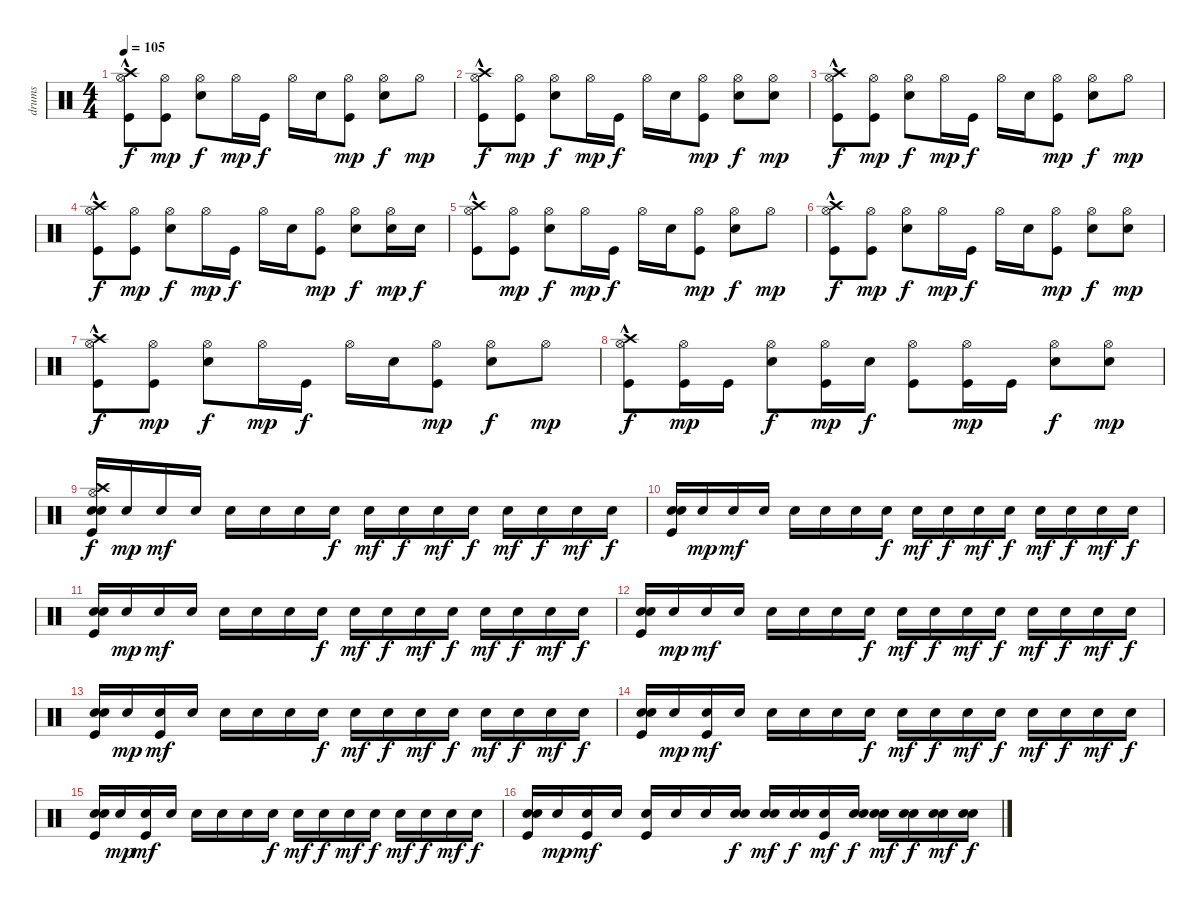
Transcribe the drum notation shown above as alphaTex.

\track ("drums" "drums") {instrument percussion}
\staff {score}
\articulation defaults
\ts (4 4)
\tempo 105
\clef neutral
\ks c
("Kick (hit)" "Crash high (hit)"{hac} "Hi-Hat (open)").8{dy f} ("Kick (hit)" "Hi-Hat (open)").8{dy mp} ("Snare (hit) 2" "Hi-Hat (open)").8{dy f} "Hi-Hat (open)".16{dy mp} "Kick (hit)".16{dy f} "Hi-Hat (open)".16 "Snare (hit) 2".16 ("Kick (hit)" "Hi-Hat (open)").8{dy mp} ("Snare (hit) 2" "Hi-Hat (open)").8{dy f} "Hi-Hat (open)".8{dy mp} |
("Hi-Hat (open)" "Crash high (hit)"{hac} "Kick (hit)").8{dy f} ("Kick (hit)" "Hi-Hat (open)").8{dy mp} ("Snare (hit) 2" "Hi-Hat (open)").8{dy f} "Hi-Hat (open)".16{dy mp} "Kick (hit)".16{dy f} "Hi-Hat (open)".16 "Snare (hit) 2".16 ("Kick (hit)" "Hi-Hat (open)").8{dy mp} ("Snare (hit) 2" "Hi-Hat (open)").8{dy f} ("Hi-Hat (open)" "Snare (hit) 2").8{dy mp} |
("Hi-Hat (open)" "Crash high (hit)"{hac} "Kick (hit)").8{dy f} ("Kick (hit)" "Hi-Hat (open)").8{dy mp} ("Snare (hit) 2" "Hi-Hat (open)").8{dy f} "Hi-Hat (open)".16{dy mp} "Kick (hit)".16{dy f} "Hi-Hat (open)".16 "Snare (hit) 2".16 ("Kick (hit)" "Hi-Hat (open)").8{dy mp} ("Snare (hit) 2" "Hi-Hat (open)").8{dy f} "Hi-Hat (open)".8{dy mp} |
("Hi-Hat (open)" "Crash high (hit)"{hac} "Kick (hit)").8{dy f} ("Kick (hit)" "Hi-Hat (open)").8{dy mp} ("Snare (hit) 2" "Hi-Hat (open)").8{dy f} "Hi-Hat (open)".16{dy mp} "Kick (hit)".16{dy f} "Hi-Hat (open)".16 "Snare (hit) 2".16 ("Kick (hit)" "Hi-Hat (open)").8{dy mp} ("Snare (hit) 2" "Hi-Hat (open)").8{dy f} ("Hi-Hat (open)" "Snare (hit) 2").16{dy mp} "Snare (hit) 2".16{dy f} |
("Hi-Hat (open)" "Crash high (hit)"{hac} "Kick (hit)").8 ("Kick (hit)" "Hi-Hat (open)").8{dy mp} ("Snare (hit) 2" "Hi-Hat (open)").8{dy f} "Hi-Hat (open)".16{dy mp} "Kick (hit)".16{dy f} "Hi-Hat (open)".16 "Snare (hit) 2".16 ("Kick (hit)" "Hi-Hat (open)").8{dy mp} ("Snare (hit) 2" "Hi-Hat (open)").8{dy f} "Hi-Hat (open)".8{dy mp} |
("Hi-Hat (open)" "Crash high (hit)"{hac} "Kick (hit)").8{dy f} ("Kick (hit)" "Hi-Hat (open)").8{dy mp} ("Snare (hit) 2" "Hi-Hat (open)").8{dy f} "Hi-Hat (open)".16{dy mp} "Kick (hit)".16{dy f} "Hi-Hat (open)".16 "Snare (hit) 2".16 ("Kick (hit)" "Hi-Hat (open)").8{dy mp} ("Snare (hit) 2" "Hi-Hat (open)").8{dy f} ("Hi-Hat (open)" "Snare (hit) 2").8{dy mp} |
("Hi-Hat (open)" "Crash high (hit)"{hac} "Kick (hit)").8{dy f} ("Kick (hit)" "Hi-Hat (open)").8{dy mp} ("Snare (hit) 2" "Hi-Hat (open)").8{dy f} "Hi-Hat (open)".16{dy mp} "Kick (hit)".16{dy f} "Hi-Hat (open)".16 "Snare (hit) 2".16 ("Kick (hit)" "Hi-Hat (open)").8{dy mp} ("Snare (hit) 2" "Hi-Hat (open)").8{dy f} "Hi-Hat (open)".8{dy mp} |
("Hi-Hat (open)" "Crash high (hit)"{hac} "Kick (hit)").8{dy f} ("Kick (hit)" "Hi-Hat (open)").16{dy mp} "Kick (hit)".16 ("Snare (hit) 2" "Hi-Hat (open)").8{dy f} ("Hi-Hat (open)" "Kick (hit)").16{dy mp} "Snare (hit) 2".16{dy f} ("Hi-Hat (open)" "Kick (hit)").8 ("Kick (hit)" "Hi-Hat (open)").16{dy mp} "Kick (hit)".16 ("Snare (hit) 2" "Hi-Hat (open)").8{dy f} ("Hi-Hat (open)" "Snare (hit) 2").8{dy mp} |
("Kick (hit)" "Snare (hit) 2" "Electric Snare (hit)" "Hi-Hat (open)" "Crash high (hit)").16{dy f} "Electric Snare (hit)".16{dy mp} "Electric Snare (hit)".16{dy mf} "Electric Snare (hit)".16 "Electric Snare (hit)".16 "Electric Snare (hit)".16 "Electric Snare (hit)".16 "Electric Snare (hit)".16{dy f} "Electric Snare (hit)".16{dy mf} "Electric Snare (hit)".16{dy f} "Electric Snare (hit)".16{dy mf} "Electric Snare (hit)".16{dy f} "Electric Snare (hit)".16{dy mf} "Electric Snare (hit)".16{dy f} "Electric Snare (hit)".16{dy mf} "Electric Snare (hit)".16{dy f} |
("Kick (hit)" "Snare (hit) 2" "Electric Snare (hit)").16 "Electric Snare (hit)".16{dy mp} "Electric Snare (hit)".16{dy mf} "Electric Snare (hit)".16 "Electric Snare (hit)".16 "Electric Snare (hit)".16 "Electric Snare (hit)".16 "Electric Snare (hit)".16{dy f} "Electric Snare (hit)".16{dy mf} "Electric Snare (hit)".16{dy f} "Electric Snare (hit)".16{dy mf} "Electric Snare (hit)".16{dy f} "Electric Snare (hit)".16{dy mf} "Electric Snare (hit)".16{dy f} "Electric Snare (hit)".16{dy mf} "Electric Snare (hit)".16{dy f} |
("Kick (hit)" "Snare (hit) 2" "Electric Snare (hit)").16 "Electric Snare (hit)".16{dy mp} "Electric Snare (hit)".16{dy mf} "Electric Snare (hit)".16 "Electric Snare (hit)".16 "Electric Snare (hit)".16 "Electric Snare (hit)".16 "Electric Snare (hit)".16{dy f} "Electric Snare (hit)".16{dy mf} "Electric Snare (hit)".16{dy f} "Electric Snare (hit)".16{dy mf} "Electric Snare (hit)".16{dy f} "Electric Snare (hit)".16{dy mf} "Electric Snare (hit)".16{dy f} "Electric Snare (hit)".16{dy mf} "Electric Snare (hit)".16{dy f} |
("Kick (hit)" "Snare (hit) 2" "Electric Snare (hit)").16 "Electric Snare (hit)".16{dy mp} "Electric Snare (hit)".16{dy mf} "Electric Snare (hit)".16 "Electric Snare (hit)".16 "Electric Snare (hit)".16 "Electric Snare (hit)".16 "Electric Snare (hit)".16{dy f} "Electric Snare (hit)".16{dy mf} "Electric Snare (hit)".16{dy f} "Electric Snare (hit)".16{dy mf} "Electric Snare (hit)".16{dy f} "Electric Snare (hit)".16{dy mf} "Electric Snare (hit)".16{dy f} "Electric Snare (hit)".16{dy mf} "Electric Snare (hit)".16{dy f} |
("Electric Snare (hit)" "Snare (hit) 2" "Kick (hit)").16 "Electric Snare (hit)".16{dy mp} ("Electric Snare (hit)" "Kick (hit)").16{dy mf} "Electric Snare (hit)".16 "Electric Snare (hit)".16 "Electric Snare (hit)".16 "Electric Snare (hit)".16 "Electric Snare (hit)".16{dy f} "Electric Snare (hit)".16{dy mf} "Electric Snare (hit)".16{dy f} "Electric Snare (hit)".16{dy mf} "Electric Snare (hit)".16{dy f} "Electric Snare (hit)".16{dy mf} "Electric Snare (hit)".16{dy f} "Electric Snare (hit)".16{dy mf} "Electric Snare (hit)".16{dy f} |
("Electric Snare (hit)" "Snare (hit) 2" "Kick (hit)").16 "Electric Snare (hit)".16{dy mp} ("Electric Snare (hit)" "Kick (hit)").16{dy mf} "Electric Snare (hit)".16 "Electric Snare (hit)".16 "Electric Snare (hit)".16 "Electric Snare (hit)".16 "Electric Snare (hit)".16{dy f} "Electric Snare (hit)".16{dy mf} "Electric Snare (hit)".16{dy f} "Electric Snare (hit)".16{dy mf} "Electric Snare (hit)".16{dy f} "Electric Snare (hit)".16{dy mf} "Electric Snare (hit)".16{dy f} "Electric Snare (hit)".16{dy mf} "Electric Snare (hit)".16{dy f} |
("Kick (hit)" "Snare (hit) 2" "Electric Snare (hit)").16 "Electric Snare (hit)".16{dy mp} ("Electric Snare (hit)" "Kick (hit)").16{dy mf} "Electric Snare (hit)".16 "Electric Snare (hit)".16 "Electric Snare (hit)".16 "Electric Snare (hit)".16 "Electric Snare (hit)".16{dy f} "Electric Snare (hit)".16{dy mf} "Electric Snare (hit)".16{dy f} "Electric Snare (hit)".16{dy mf} "Electric Snare (hit)".16{dy f} "Electric Snare (hit)".16{dy mf} "Electric Snare (hit)".16{dy f} "Electric Snare (hit)".16{dy mf} "Electric Snare (hit)".16{dy f} |
("Kick (hit)" "Snare (hit) 2" "Electric Snare (hit)").16 "Electric Snare (hit)".16{dy mp} ("Electric Snare (hit)" "Kick (hit)").16{dy mf} "Electric Snare (hit)".16 ("Electric Snare (hit)" "Kick (hit)").16 "Electric Snare (hit)".16 "Electric Snare (hit)".16 ("Electric Snare (hit)" "Snare (hit) 2").16{dy f} ("Electric Snare (hit)" "Snare (hit) 2").16{dy mf} ("Electric Snare (hit)" "Snare (hit) 2").16{dy f} ("Electric Snare (hit)" "Kick (hit)").16{dy mf} ("Electric Snare (hit)" "Snare (hit) 2").16{dy f} ("Electric Snare (hit)" "Snare (hit) 2").16{dy mf} ("Electric Snare (hit)" "Snare (hit) 2").16{dy f} ("Electric Snare (hit)" "Snare (hit) 2").16{dy mf} ("Electric Snare (hit)" "Snare (hit) 2").16{dy f}
